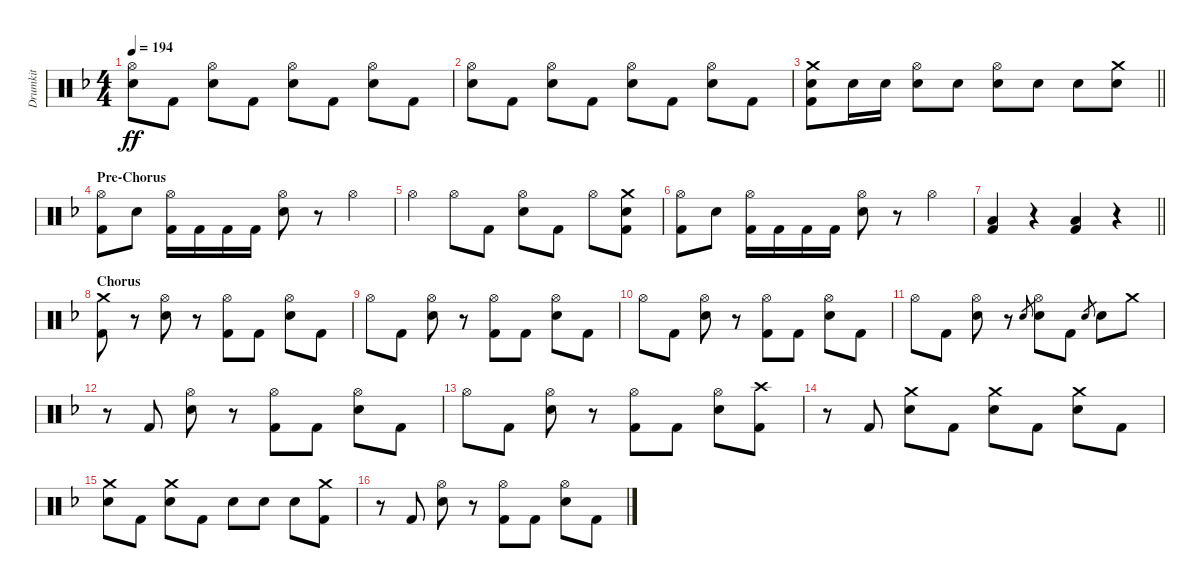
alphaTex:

\track ("Drumkit" "Drumkit") {instrument percussion}
\staff {score}
\articulation defaults
\ts (4 4)
\tempo 194
\clef neutral
\ks f
("Hi-Hat (open)" "Snare (hit) 2").8{dy ff} "Kick (hit) 2".8 ("Hi-Hat (open)" "Snare (hit) 2").8 "Kick (hit) 2".8 ("Hi-Hat (open)" "Snare (hit) 2").8 "Kick (hit) 2".8 ("Hi-Hat (open)" "Snare (hit) 2").8 "Kick (hit) 2".8 |
("Hi-Hat (open)" "Snare (hit) 2").8 "Kick (hit) 2".8 ("Hi-Hat (open)" "Snare (hit) 2").8 "Kick (hit) 2".8 ("Hi-Hat (open)" "Snare (hit) 2").8 "Kick (hit) 2".8 ("Hi-Hat (open)" "Snare (hit) 2").8 "Kick (hit) 2".8 |
\barLineRight lightlight
("Crash medium (hit)" "Snare (hit) 2" "Kick (hit) 2").8 "Snare (hit) 2".16 "Snare (hit) 2".16 ("Hi-Hat (open)" "Snare (hit) 2").8 "Snare (hit) 2".8 ("Hi-Hat (open)" "Snare (hit) 2").8 "Snare (hit) 2".8 "Snare (hit) 2".8 ("Crash medium (hit)" "Snare (hit) 2").8 |
\section ("" "Pre-Chorus")
("Hi-Hat (open)" "Kick (hit) 2").8 "Snare (hit) 2".8 ("Hi-Hat (open)" "Kick (hit) 2").16 "Kick (hit) 2".16 "Kick (hit) 2".16 "Kick (hit) 2".16 ("Hi-Hat (open)" "Snare (hit) 2").8 r.8 "Hi-Hat (open)".4 |
"Hi-Hat (open)".4 "Hi-Hat (open)".8 "Kick (hit) 2".8 ("Hi-Hat (open)" "Snare (hit) 2").8 "Kick (hit) 2".8 "Hi-Hat (open)".8 ("Crash medium (hit)" "Snare (hit) 2" "Kick (hit) 2").8 |
("Hi-Hat (open)" "Kick (hit) 2").8 "Snare (hit) 2".8 ("Hi-Hat (open)" "Kick (hit) 2").16 "Kick (hit) 2".16 "Kick (hit) 2".16 "Kick (hit) 2".16 ("Hi-Hat (open)" "Snare (hit) 2").8 r.8 "Hi-Hat (open)".4 |
\barLineRight lightlight
("Low Tom (hit)" "Kick (hit) 2").4 r.4 ("Low Tom (hit)" "Kick (hit) 2").4 r.4 |
\section ("" "Chorus")
("Crash medium (hit)" "Kick (hit) 2").8 r.8 ("Hi-Hat (open)" "Snare (hit) 2").8 r.8 ("Hi-Hat (open)" "Kick (hit) 2").8 "Kick (hit) 2".8 ("Hi-Hat (open)" "Snare (hit) 2").8 "Kick (hit) 2".8 |
"Hi-Hat (open)".8 "Kick (hit) 2".8 ("Hi-Hat (open)" "Snare (hit) 2").8 r.8 ("Hi-Hat (open)" "Kick (hit) 2").8 "Kick (hit) 2".8 ("Hi-Hat (open)" "Snare (hit) 2").8 "Kick (hit) 2".8 |
"Hi-Hat (open)".8 "Kick (hit) 2".8 ("Hi-Hat (open)" "Snare (hit) 2").8 r.8 ("Hi-Hat (open)" "Kick (hit) 2").8 "Kick (hit) 2".8 ("Hi-Hat (open)" "Snare (hit) 2").8 "Kick (hit) 2".8 |
"Hi-Hat (open)".8 "Kick (hit) 2".8 ("Hi-Hat (open)" "Snare (hit) 2").8 r.8 "Snare (hit)".8{gr} ("Hi-Hat (open)" "Snare (hit) 2").8 "Kick (hit) 2".8 "Snare (hit)".8{gr} "Snare (hit) 2".8 "Crash medium (hit)".8 |
r.8 "Kick (hit) 2".8 ("Hi-Hat (open)" "Snare (hit) 2").8 r.8 ("Hi-Hat (open)" "Kick (hit) 2").8 "Kick (hit) 2".8 ("Hi-Hat (open)" "Snare (hit) 2").8 "Kick (hit) 2".8 |
"Hi-Hat (open)".8 "Kick (hit) 2".8 ("Hi-Hat (open)" "Snare (hit) 2").8 r.8 ("Hi-Hat (open)" "Kick (hit) 2").8 "Kick (hit) 2".8 ("Hi-Hat (open)" "Snare (hit) 2").8 ("Crash high (hit)" "Kick (hit) 2").8 |
r.8 "Kick (hit) 2".8 ("Crash medium (hit)" "Snare (hit) 2").8 "Kick (hit) 2".8 ("Crash medium (hit)" "Snare (hit) 2").8 "Kick (hit) 2".8 ("Crash medium (hit)" "Snare (hit) 2").8 "Kick (hit) 2".8 |
("Crash medium (hit)" "Snare (hit) 2").8 "Kick (hit) 2".8 ("Crash medium (hit)" "Snare (hit) 2").8 "Kick (hit) 2".8 "Snare (hit) 2".8 "Snare (hit) 2".8 "Snare (hit) 2".8 ("Crash medium (hit)" "Kick (hit) 2").8 |
r.8 "Kick (hit) 2".8 ("Hi-Hat (open)" "Snare (hit) 2").8 r.8 ("Hi-Hat (open)" "Kick (hit) 2").8 "Kick (hit) 2".8 ("Hi-Hat (open)" "Snare (hit) 2").8 "Kick (hit) 2".8
